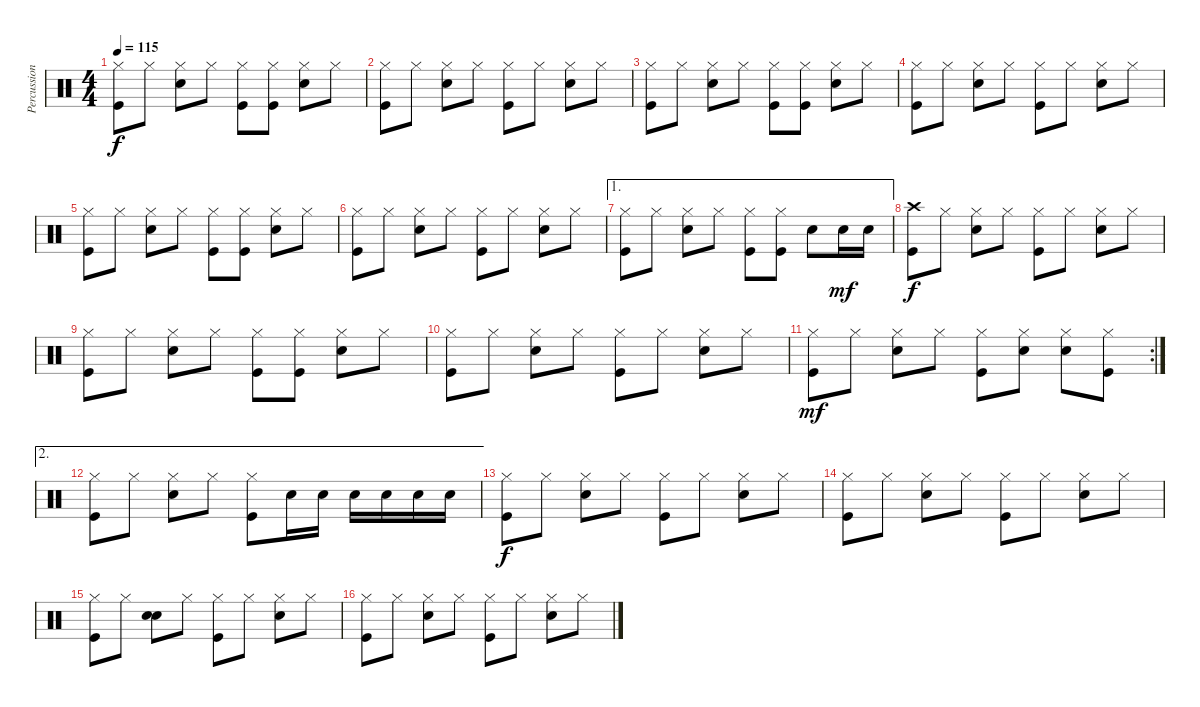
\track ("Percussion" "Percussion") {instrument percussion}
\staff {score}
\articulation defaults
\ts (4 4)
\tempo 115
\clef neutral
\ks c
("Hi-Hat (closed)" "Kick (hit)").8{dy f} "Hi-Hat (closed)".8 ("Hi-Hat (closed)" "Snare (hit) 2").8 "Hi-Hat (closed)".8 ("Hi-Hat (closed)" "Kick (hit)").8 ("Hi-Hat (closed)" "Kick (hit)").8 ("Hi-Hat (closed)" "Snare (hit) 2").8 "Hi-Hat (closed)".8 |
("Hi-Hat (closed)" "Kick (hit)").8 "Hi-Hat (closed)".8 ("Hi-Hat (closed)" "Snare (hit) 2").8 "Hi-Hat (closed)".8 ("Hi-Hat (closed)" "Kick (hit)").8 "Hi-Hat (closed)".8 ("Hi-Hat (closed)" "Snare (hit) 2").8 "Hi-Hat (closed)".8 |
("Hi-Hat (closed)" "Kick (hit)").8 "Hi-Hat (closed)".8 ("Hi-Hat (closed)" "Snare (hit) 2").8 "Hi-Hat (closed)".8 ("Hi-Hat (closed)" "Kick (hit)").8 ("Hi-Hat (closed)" "Kick (hit)").8 ("Hi-Hat (closed)" "Snare (hit) 2").8 "Hi-Hat (closed)".8 |
("Hi-Hat (closed)" "Kick (hit)").8 "Hi-Hat (closed)".8 ("Hi-Hat (closed)" "Snare (hit) 2").8 "Hi-Hat (closed)".8 ("Hi-Hat (closed)" "Kick (hit)").8 "Hi-Hat (closed)".8 ("Hi-Hat (closed)" "Snare (hit) 2").8 "Hi-Hat (closed)".8 |
("Hi-Hat (closed)" "Kick (hit)").8 "Hi-Hat (closed)".8 ("Hi-Hat (closed)" "Snare (hit) 2").8 "Hi-Hat (closed)".8 ("Hi-Hat (closed)" "Kick (hit)").8 ("Hi-Hat (closed)" "Kick (hit)").8 ("Hi-Hat (closed)" "Snare (hit) 2").8 "Hi-Hat (closed)".8 |
("Hi-Hat (closed)" "Kick (hit)").8 "Hi-Hat (closed)".8 ("Hi-Hat (closed)" "Snare (hit) 2").8 "Hi-Hat (closed)".8 ("Hi-Hat (closed)" "Kick (hit)").8 "Hi-Hat (closed)".8 ("Hi-Hat (closed)" "Snare (hit) 2").8 "Hi-Hat (closed)".8 |
\ae 1
("Hi-Hat (closed)" "Kick (hit)").8 "Hi-Hat (closed)".8 ("Hi-Hat (closed)" "Snare (hit) 2").8 "Hi-Hat (closed)".8 ("Hi-Hat (closed)" "Kick (hit)").8 ("Hi-Hat (closed)" "Kick (hit)").8 "Snare (hit) 2".8 "Snare (hit) 2".16{dy mf} "Snare (hit) 2".16 |
("Crash high (hit)" "Kick (hit)").8{dy f} "Hi-Hat (closed)".8 ("Hi-Hat (closed)" "Snare (hit) 2").8 "Hi-Hat (closed)".8 ("Hi-Hat (closed)" "Kick (hit)").8 "Hi-Hat (closed)".8 ("Hi-Hat (closed)" "Snare (hit) 2").8 "Hi-Hat (closed)".8 |
("Hi-Hat (closed)" "Kick (hit)").8 "Hi-Hat (closed)".8 ("Hi-Hat (closed)" "Snare (hit) 2").8 "Hi-Hat (closed)".8 ("Hi-Hat (closed)" "Kick (hit)").8 ("Hi-Hat (closed)" "Kick (hit)").8 ("Hi-Hat (closed)" "Snare (hit) 2").8 "Hi-Hat (closed)".8 |
("Hi-Hat (closed)" "Kick (hit)").8 "Hi-Hat (closed)".8 ("Hi-Hat (closed)" "Snare (hit) 2").8 "Hi-Hat (closed)".8 ("Hi-Hat (closed)" "Kick (hit)").8 "Hi-Hat (closed)".8 ("Hi-Hat (closed)" "Snare (hit) 2").8 "Hi-Hat (closed)".8 |
\rc 2
("Hi-Hat (closed)" "Kick (hit)").8{dy mf} "Hi-Hat (closed)".8 ("Hi-Hat (closed)" "Snare (hit) 2").8 "Hi-Hat (closed)".8 ("Hi-Hat (closed)" "Kick (hit)").8 ("Hi-Hat (closed)" "Snare (hit) 2").8 ("Hi-Hat (closed)" "Snare (hit) 2").8 ("Hi-Hat (closed)" "Kick (hit)").8 |
\ae 2
("Hi-Hat (closed)" "Kick (hit)").8 "Hi-Hat (closed)".8 ("Hi-Hat (closed)" "Snare (hit) 2").8 "Hi-Hat (closed)".8 ("Hi-Hat (closed)" "Kick (hit)").8 "Snare (hit) 2".16 "Snare (hit) 2".16 "Snare (hit) 2".16 "Snare (hit) 2".16 "Snare (hit) 2".16 "Snare (hit) 2".16 |
("Hi-Hat (closed)" "Kick (hit)").8{dy f} "Hi-Hat (closed)".8 ("Hi-Hat (closed)" "Snare (hit) 2").8 "Hi-Hat (closed)".8 ("Hi-Hat (closed)" "Kick (hit)").8 "Hi-Hat (closed)".8 ("Hi-Hat (closed)" "Snare (hit) 2").8 "Hi-Hat (closed)".8 |
("Hi-Hat (closed)" "Kick (hit)").8 "Hi-Hat (closed)".8 ("Hi-Hat (closed)" "Snare (hit) 2").8 "Hi-Hat (closed)".8 ("Hi-Hat (closed)" "Kick (hit)").8 "Hi-Hat (closed)".8 ("Hi-Hat (closed)" "Snare (hit) 2").8 "Hi-Hat (closed)".8 |
("Hi-Hat (closed)" "Kick (hit)").8 "Hi-Hat (closed)".8 ("Snare (hit)" "Snare (hit) 2").8 "Hi-Hat (closed)".8 ("Hi-Hat (closed)" "Kick (hit)").8 "Hi-Hat (closed)".8 ("Hi-Hat (closed)" "Snare (hit) 2").8 "Hi-Hat (closed)".8 |
("Hi-Hat (closed)" "Kick (hit)").8 "Hi-Hat (closed)".8 ("Hi-Hat (closed)" "Snare (hit) 2").8 "Hi-Hat (closed)".8 ("Hi-Hat (closed)" "Kick (hit)").8 "Hi-Hat (closed)".8 ("Hi-Hat (closed)" "Snare (hit) 2").8 "Hi-Hat (closed)".8
